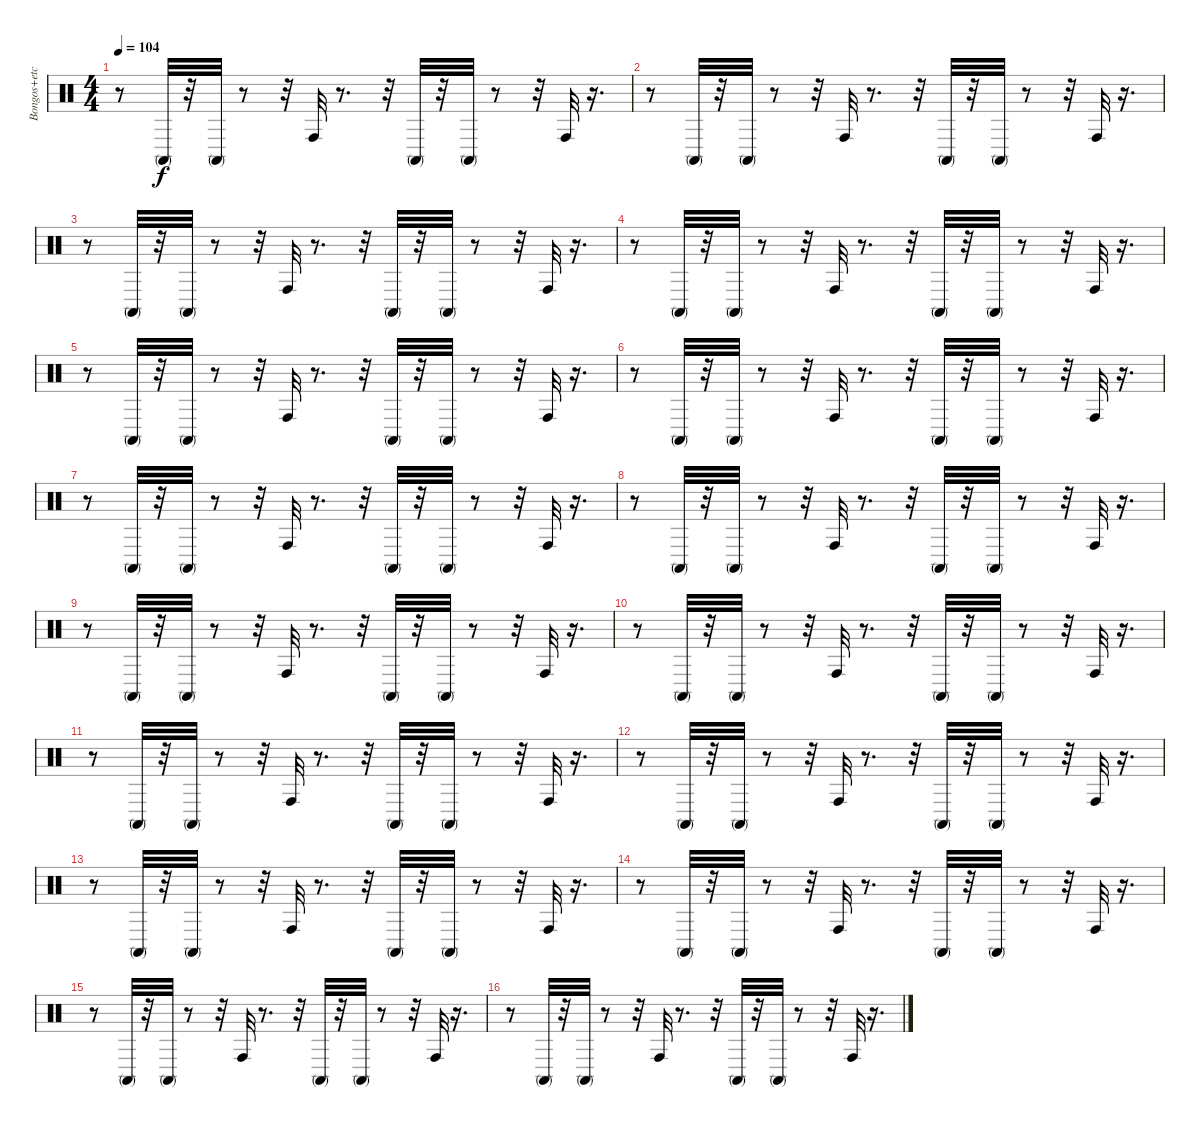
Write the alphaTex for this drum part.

\track ("Bongos+etc" "Bongos+etc") {instrument percussion}
\staff {score}
\articulation defaults
\ts (4 4)
\tempo 104
\clef neutral
\ks c
r.8{dy f} "Conga high (mute)".32 r.32 "Conga high (mute)".32 r.8 r.32 "Conga high (hit)".32 r.8{d} r.32 "Conga high (mute)".32 r.32 "Conga high (mute)".32 r.8 r.32 "Conga high (hit)".32 r.16{d} |
r.8 "Conga high (mute)".32 r.32 "Conga high (mute)".32 r.8 r.32 "Conga high (hit)".32 r.8{d} r.32 "Conga high (mute)".32 r.32 "Conga high (mute)".32 r.8 r.32 "Conga high (hit)".32 r.16{d} |
r.8 "Conga high (mute)".32 r.32 "Conga high (mute)".32 r.8 r.32 "Conga high (hit)".32 r.8{d} r.32 "Conga high (mute)".32 r.32 "Conga high (mute)".32 r.8 r.32 "Conga high (hit)".32 r.16{d} |
r.8 "Conga high (mute)".32 r.32 "Conga high (mute)".32 r.8 r.32 "Conga high (hit)".32 r.8{d} r.32 "Conga high (mute)".32 r.32 "Conga high (mute)".32 r.8 r.32 "Conga high (hit)".32 r.16{d} |
r.8 "Conga high (mute)".32 r.32 "Conga high (mute)".32 r.8 r.32 "Conga high (hit)".32 r.8{d} r.32 "Conga high (mute)".32 r.32 "Conga high (mute)".32 r.8 r.32 "Conga high (hit)".32 r.16{d} |
r.8 "Conga high (mute)".32 r.32 "Conga high (mute)".32 r.8 r.32 "Conga high (hit)".32 r.8{d} r.32 "Conga high (mute)".32 r.32 "Conga high (mute)".32 r.8 r.32 "Conga high (hit)".32 r.16{d} |
r.8 "Conga high (mute)".32 r.32 "Conga high (mute)".32 r.8 r.32 "Conga high (hit)".32 r.8{d} r.32 "Conga high (mute)".32 r.32 "Conga high (mute)".32 r.8 r.32 "Conga high (hit)".32 r.16{d} |
r.8 "Conga high (mute)".32 r.32 "Conga high (mute)".32 r.8 r.32 "Conga high (hit)".32 r.8{d} r.32 "Conga high (mute)".32 r.32 "Conga high (mute)".32 r.8 r.32 "Conga high (hit)".32 r.16{d} |
r.8 "Conga high (mute)".32 r.32 "Conga high (mute)".32 r.8 r.32 "Conga high (hit)".32 r.8{d} r.32 "Conga high (mute)".32 r.32 "Conga high (mute)".32 r.8 r.32 "Conga high (hit)".32 r.16{d} |
r.8 "Conga high (mute)".32 r.32 "Conga high (mute)".32 r.8 r.32 "Conga high (hit)".32 r.8{d} r.32 "Conga high (mute)".32 r.32 "Conga high (mute)".32 r.8 r.32 "Conga high (hit)".32 r.16{d} |
r.8 "Conga high (mute)".32 r.32 "Conga high (mute)".32 r.8 r.32 "Conga high (hit)".32 r.8{d} r.32 "Conga high (mute)".32 r.32 "Conga high (mute)".32 r.8 r.32 "Conga high (hit)".32 r.16{d} |
r.8 "Conga high (mute)".32 r.32 "Conga high (mute)".32 r.8 r.32 "Conga high (hit)".32 r.8{d} r.32 "Conga high (mute)".32 r.32 "Conga high (mute)".32 r.8 r.32 "Conga high (hit)".32 r.16{d} |
r.8 "Conga high (mute)".32 r.32 "Conga high (mute)".32 r.8 r.32 "Conga high (hit)".32 r.8{d} r.32 "Conga high (mute)".32 r.32 "Conga high (mute)".32 r.8 r.32 "Conga high (hit)".32 r.16{d} |
r.8 "Conga high (mute)".32 r.32 "Conga high (mute)".32 r.8 r.32 "Conga high (hit)".32 r.8{d} r.32 "Conga high (mute)".32 r.32 "Conga high (mute)".32 r.8 r.32 "Conga high (hit)".32 r.16{d} |
r.8 "Conga high (mute)".32 r.32 "Conga high (mute)".32 r.8 r.32 "Conga high (hit)".32 r.8{d} r.32 "Conga high (mute)".32 r.32 "Conga high (mute)".32 r.8 r.32 "Conga high (hit)".32 r.16{d} |
r.8 "Conga high (mute)".32 r.32 "Conga high (mute)".32 r.8 r.32 "Conga high (hit)".32 r.8{d} r.32 "Conga high (mute)".32 r.32 "Conga high (mute)".32 r.8 r.32 "Conga high (hit)".32 r.16{d}
